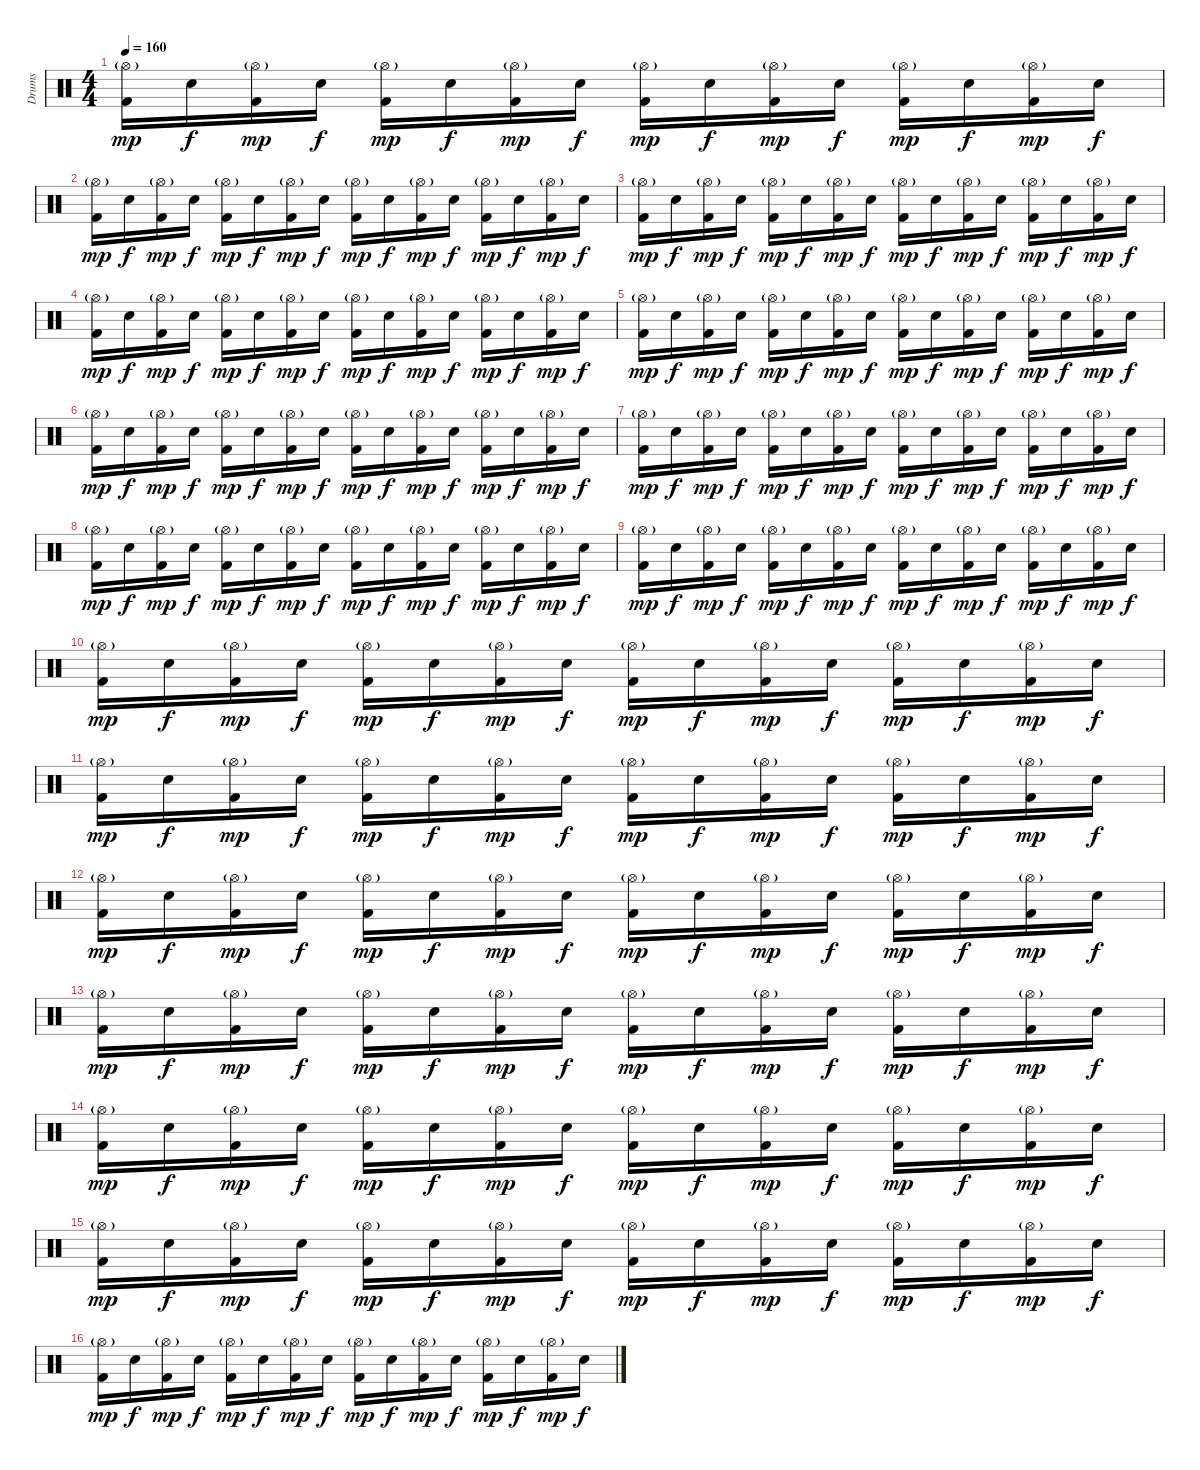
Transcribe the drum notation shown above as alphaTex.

\track ("Drums" "Drums") {instrument percussion}
\staff {score}
\articulation defaults
\ts (4 4)
\tempo 160
\clef neutral
\ks c
("Hi-Hat (open)"{g} "Kick (hit) 2").16{dy mp} "Electric Snare (hit)".16{dy f} ("Hi-Hat (open)"{g} "Kick (hit) 2").16{dy mp} "Electric Snare (hit)".16{dy f} ("Hi-Hat (open)"{g} "Kick (hit) 2").16{dy mp} "Electric Snare (hit)".16{dy f} ("Hi-Hat (open)"{g} "Kick (hit) 2").16{dy mp} "Electric Snare (hit)".16{dy f} ("Hi-Hat (open)"{g} "Kick (hit) 2").16{dy mp} "Electric Snare (hit)".16{dy f} ("Hi-Hat (open)"{g} "Kick (hit) 2").16{dy mp} "Electric Snare (hit)".16{dy f} ("Hi-Hat (open)"{g} "Kick (hit) 2").16{dy mp} "Electric Snare (hit)".16{dy f} ("Hi-Hat (open)"{g} "Kick (hit) 2").16{dy mp} "Electric Snare (hit)".16{dy f} |
("Hi-Hat (open)"{g} "Kick (hit) 2").16{dy mp} "Electric Snare (hit)".16{dy f} ("Hi-Hat (open)"{g} "Kick (hit) 2").16{dy mp} "Electric Snare (hit)".16{dy f} ("Hi-Hat (open)"{g} "Kick (hit) 2").16{dy mp} "Electric Snare (hit)".16{dy f} ("Hi-Hat (open)"{g} "Kick (hit) 2").16{dy mp} "Electric Snare (hit)".16{dy f} ("Hi-Hat (open)"{g} "Kick (hit) 2").16{dy mp} "Electric Snare (hit)".16{dy f} ("Hi-Hat (open)"{g} "Kick (hit) 2").16{dy mp} "Electric Snare (hit)".16{dy f} ("Hi-Hat (open)"{g} "Kick (hit) 2").16{dy mp} "Electric Snare (hit)".16{dy f} ("Hi-Hat (open)"{g} "Kick (hit) 2").16{dy mp} "Electric Snare (hit)".16{dy f} |
("Hi-Hat (open)"{g} "Kick (hit) 2").16{dy mp} "Electric Snare (hit)".16{dy f} ("Hi-Hat (open)"{g} "Kick (hit) 2").16{dy mp} "Electric Snare (hit)".16{dy f} ("Hi-Hat (open)"{g} "Kick (hit) 2").16{dy mp} "Electric Snare (hit)".16{dy f} ("Hi-Hat (open)"{g} "Kick (hit) 2").16{dy mp} "Electric Snare (hit)".16{dy f} ("Hi-Hat (open)"{g} "Kick (hit) 2").16{dy mp} "Electric Snare (hit)".16{dy f} ("Hi-Hat (open)"{g} "Kick (hit) 2").16{dy mp} "Electric Snare (hit)".16{dy f} ("Hi-Hat (open)"{g} "Kick (hit) 2").16{dy mp} "Electric Snare (hit)".16{dy f} ("Hi-Hat (open)"{g} "Kick (hit) 2").16{dy mp} "Electric Snare (hit)".16{dy f} |
("Hi-Hat (open)"{g} "Kick (hit) 2").16{dy mp} "Electric Snare (hit)".16{dy f} ("Hi-Hat (open)"{g} "Kick (hit) 2").16{dy mp} "Electric Snare (hit)".16{dy f} ("Hi-Hat (open)"{g} "Kick (hit) 2").16{dy mp} "Electric Snare (hit)".16{dy f} ("Hi-Hat (open)"{g} "Kick (hit) 2").16{dy mp} "Electric Snare (hit)".16{dy f} ("Hi-Hat (open)"{g} "Kick (hit) 2").16{dy mp} "Electric Snare (hit)".16{dy f} ("Hi-Hat (open)"{g} "Kick (hit) 2").16{dy mp} "Electric Snare (hit)".16{dy f} ("Hi-Hat (open)"{g} "Kick (hit) 2").16{dy mp} "Electric Snare (hit)".16{dy f} ("Hi-Hat (open)"{g} "Kick (hit) 2").16{dy mp} "Electric Snare (hit)".16{dy f} |
("Hi-Hat (open)"{g} "Kick (hit) 2").16{dy mp} "Electric Snare (hit)".16{dy f} ("Hi-Hat (open)"{g} "Kick (hit) 2").16{dy mp} "Electric Snare (hit)".16{dy f} ("Hi-Hat (open)"{g} "Kick (hit) 2").16{dy mp} "Electric Snare (hit)".16{dy f} ("Hi-Hat (open)"{g} "Kick (hit) 2").16{dy mp} "Electric Snare (hit)".16{dy f} ("Hi-Hat (open)"{g} "Kick (hit) 2").16{dy mp} "Electric Snare (hit)".16{dy f} ("Hi-Hat (open)"{g} "Kick (hit) 2").16{dy mp} "Electric Snare (hit)".16{dy f} ("Hi-Hat (open)"{g} "Kick (hit) 2").16{dy mp} "Electric Snare (hit)".16{dy f} ("Hi-Hat (open)"{g} "Kick (hit) 2").16{dy mp} "Electric Snare (hit)".16{dy f} |
("Hi-Hat (open)"{g} "Kick (hit) 2").16{dy mp} "Electric Snare (hit)".16{dy f} ("Hi-Hat (open)"{g} "Kick (hit) 2").16{dy mp} "Electric Snare (hit)".16{dy f} ("Hi-Hat (open)"{g} "Kick (hit) 2").16{dy mp} "Electric Snare (hit)".16{dy f} ("Hi-Hat (open)"{g} "Kick (hit) 2").16{dy mp} "Electric Snare (hit)".16{dy f} ("Hi-Hat (open)"{g} "Kick (hit) 2").16{dy mp} "Electric Snare (hit)".16{dy f} ("Hi-Hat (open)"{g} "Kick (hit) 2").16{dy mp} "Electric Snare (hit)".16{dy f} ("Hi-Hat (open)"{g} "Kick (hit) 2").16{dy mp} "Electric Snare (hit)".16{dy f} ("Hi-Hat (open)"{g} "Kick (hit) 2").16{dy mp} "Electric Snare (hit)".16{dy f} |
("Hi-Hat (open)"{g} "Kick (hit) 2").16{dy mp} "Electric Snare (hit)".16{dy f} ("Hi-Hat (open)"{g} "Kick (hit) 2").16{dy mp} "Electric Snare (hit)".16{dy f} ("Hi-Hat (open)"{g} "Kick (hit) 2").16{dy mp} "Electric Snare (hit)".16{dy f} ("Hi-Hat (open)"{g} "Kick (hit) 2").16{dy mp} "Electric Snare (hit)".16{dy f} ("Hi-Hat (open)"{g} "Kick (hit) 2").16{dy mp} "Electric Snare (hit)".16{dy f} ("Hi-Hat (open)"{g} "Kick (hit) 2").16{dy mp} "Electric Snare (hit)".16{dy f} ("Hi-Hat (open)"{g} "Kick (hit) 2").16{dy mp} "Electric Snare (hit)".16{dy f} ("Hi-Hat (open)"{g} "Kick (hit) 2").16{dy mp} "Electric Snare (hit)".16{dy f} |
("Hi-Hat (open)"{g} "Kick (hit) 2").16{dy mp} "Electric Snare (hit)".16{dy f} ("Hi-Hat (open)"{g} "Kick (hit) 2").16{dy mp} "Electric Snare (hit)".16{dy f} ("Hi-Hat (open)"{g} "Kick (hit) 2").16{dy mp} "Electric Snare (hit)".16{dy f} ("Hi-Hat (open)"{g} "Kick (hit) 2").16{dy mp} "Electric Snare (hit)".16{dy f} ("Hi-Hat (open)"{g} "Kick (hit) 2").16{dy mp} "Electric Snare (hit)".16{dy f} ("Hi-Hat (open)"{g} "Kick (hit) 2").16{dy mp} "Electric Snare (hit)".16{dy f} ("Hi-Hat (open)"{g} "Kick (hit) 2").16{dy mp} "Electric Snare (hit)".16{dy f} ("Hi-Hat (open)"{g} "Kick (hit) 2").16{dy mp} "Electric Snare (hit)".16{dy f} |
("Hi-Hat (open)"{g} "Kick (hit) 2").16{dy mp} "Electric Snare (hit)".16{dy f} ("Hi-Hat (open)"{g} "Kick (hit) 2").16{dy mp} "Electric Snare (hit)".16{dy f} ("Hi-Hat (open)"{g} "Kick (hit) 2").16{dy mp} "Electric Snare (hit)".16{dy f} ("Hi-Hat (open)"{g} "Kick (hit) 2").16{dy mp} "Electric Snare (hit)".16{dy f} ("Hi-Hat (open)"{g} "Kick (hit) 2").16{dy mp} "Electric Snare (hit)".16{dy f} ("Hi-Hat (open)"{g} "Kick (hit) 2").16{dy mp} "Electric Snare (hit)".16{dy f} ("Hi-Hat (open)"{g} "Kick (hit) 2").16{dy mp} "Electric Snare (hit)".16{dy f} ("Hi-Hat (open)"{g} "Kick (hit) 2").16{dy mp} "Electric Snare (hit)".16{dy f} |
("Hi-Hat (open)"{g} "Kick (hit) 2").16{dy mp} "Electric Snare (hit)".16{dy f} ("Hi-Hat (open)"{g} "Kick (hit) 2").16{dy mp} "Electric Snare (hit)".16{dy f} ("Hi-Hat (open)"{g} "Kick (hit) 2").16{dy mp} "Electric Snare (hit)".16{dy f} ("Hi-Hat (open)"{g} "Kick (hit) 2").16{dy mp} "Electric Snare (hit)".16{dy f} ("Hi-Hat (open)"{g} "Kick (hit) 2").16{dy mp} "Electric Snare (hit)".16{dy f} ("Hi-Hat (open)"{g} "Kick (hit) 2").16{dy mp} "Electric Snare (hit)".16{dy f} ("Hi-Hat (open)"{g} "Kick (hit) 2").16{dy mp} "Electric Snare (hit)".16{dy f} ("Hi-Hat (open)"{g} "Kick (hit) 2").16{dy mp} "Electric Snare (hit)".16{dy f} |
("Hi-Hat (open)"{g} "Kick (hit) 2").16{dy mp} "Electric Snare (hit)".16{dy f} ("Hi-Hat (open)"{g} "Kick (hit) 2").16{dy mp} "Electric Snare (hit)".16{dy f} ("Hi-Hat (open)"{g} "Kick (hit) 2").16{dy mp} "Electric Snare (hit)".16{dy f} ("Hi-Hat (open)"{g} "Kick (hit) 2").16{dy mp} "Electric Snare (hit)".16{dy f} ("Hi-Hat (open)"{g} "Kick (hit) 2").16{dy mp} "Electric Snare (hit)".16{dy f} ("Hi-Hat (open)"{g} "Kick (hit) 2").16{dy mp} "Electric Snare (hit)".16{dy f} ("Hi-Hat (open)"{g} "Kick (hit) 2").16{dy mp} "Electric Snare (hit)".16{dy f} ("Hi-Hat (open)"{g} "Kick (hit) 2").16{dy mp} "Electric Snare (hit)".16{dy f} |
("Hi-Hat (open)"{g} "Kick (hit) 2").16{dy mp} "Electric Snare (hit)".16{dy f} ("Hi-Hat (open)"{g} "Kick (hit) 2").16{dy mp} "Electric Snare (hit)".16{dy f} ("Hi-Hat (open)"{g} "Kick (hit) 2").16{dy mp} "Electric Snare (hit)".16{dy f} ("Hi-Hat (open)"{g} "Kick (hit) 2").16{dy mp} "Electric Snare (hit)".16{dy f} ("Hi-Hat (open)"{g} "Kick (hit) 2").16{dy mp} "Electric Snare (hit)".16{dy f} ("Hi-Hat (open)"{g} "Kick (hit) 2").16{dy mp} "Electric Snare (hit)".16{dy f} ("Hi-Hat (open)"{g} "Kick (hit) 2").16{dy mp} "Electric Snare (hit)".16{dy f} ("Hi-Hat (open)"{g} "Kick (hit) 2").16{dy mp} "Electric Snare (hit)".16{dy f} |
("Hi-Hat (open)"{g} "Kick (hit) 2").16{dy mp} "Electric Snare (hit)".16{dy f} ("Hi-Hat (open)"{g} "Kick (hit) 2").16{dy mp} "Electric Snare (hit)".16{dy f} ("Hi-Hat (open)"{g} "Kick (hit) 2").16{dy mp} "Electric Snare (hit)".16{dy f} ("Hi-Hat (open)"{g} "Kick (hit) 2").16{dy mp} "Electric Snare (hit)".16{dy f} ("Hi-Hat (open)"{g} "Kick (hit) 2").16{dy mp} "Electric Snare (hit)".16{dy f} ("Hi-Hat (open)"{g} "Kick (hit) 2").16{dy mp} "Electric Snare (hit)".16{dy f} ("Hi-Hat (open)"{g} "Kick (hit) 2").16{dy mp} "Electric Snare (hit)".16{dy f} ("Hi-Hat (open)"{g} "Kick (hit) 2").16{dy mp} "Electric Snare (hit)".16{dy f} |
("Hi-Hat (open)"{g} "Kick (hit) 2").16{dy mp} "Electric Snare (hit)".16{dy f} ("Hi-Hat (open)"{g} "Kick (hit) 2").16{dy mp} "Electric Snare (hit)".16{dy f} ("Hi-Hat (open)"{g} "Kick (hit) 2").16{dy mp} "Electric Snare (hit)".16{dy f} ("Hi-Hat (open)"{g} "Kick (hit) 2").16{dy mp} "Electric Snare (hit)".16{dy f} ("Hi-Hat (open)"{g} "Kick (hit) 2").16{dy mp} "Electric Snare (hit)".16{dy f} ("Hi-Hat (open)"{g} "Kick (hit) 2").16{dy mp} "Electric Snare (hit)".16{dy f} ("Hi-Hat (open)"{g} "Kick (hit) 2").16{dy mp} "Electric Snare (hit)".16{dy f} ("Hi-Hat (open)"{g} "Kick (hit) 2").16{dy mp} "Electric Snare (hit)".16{dy f} |
("Hi-Hat (open)"{g} "Kick (hit) 2").16{dy mp} "Electric Snare (hit)".16{dy f} ("Hi-Hat (open)"{g} "Kick (hit) 2").16{dy mp} "Electric Snare (hit)".16{dy f} ("Hi-Hat (open)"{g} "Kick (hit) 2").16{dy mp} "Electric Snare (hit)".16{dy f} ("Hi-Hat (open)"{g} "Kick (hit) 2").16{dy mp} "Electric Snare (hit)".16{dy f} ("Hi-Hat (open)"{g} "Kick (hit) 2").16{dy mp} "Electric Snare (hit)".16{dy f} ("Hi-Hat (open)"{g} "Kick (hit) 2").16{dy mp} "Electric Snare (hit)".16{dy f} ("Hi-Hat (open)"{g} "Kick (hit) 2").16{dy mp} "Electric Snare (hit)".16{dy f} ("Hi-Hat (open)"{g} "Kick (hit) 2").16{dy mp} "Electric Snare (hit)".16{dy f} |
("Hi-Hat (open)"{g} "Kick (hit) 2").16{dy mp} "Electric Snare (hit)".16{dy f} ("Hi-Hat (open)"{g} "Kick (hit) 2").16{dy mp} "Electric Snare (hit)".16{dy f} ("Hi-Hat (open)"{g} "Kick (hit) 2").16{dy mp} "Electric Snare (hit)".16{dy f} ("Hi-Hat (open)"{g} "Kick (hit) 2").16{dy mp} "Electric Snare (hit)".16{dy f} ("Hi-Hat (open)"{g} "Kick (hit) 2").16{dy mp} "Electric Snare (hit)".16{dy f} ("Hi-Hat (open)"{g} "Kick (hit) 2").16{dy mp} "Electric Snare (hit)".16{dy f} ("Hi-Hat (open)"{g} "Kick (hit) 2").16{dy mp} "Electric Snare (hit)".16{dy f} ("Hi-Hat (open)"{g} "Kick (hit) 2").16{dy mp} "Electric Snare (hit)".16{dy f}
